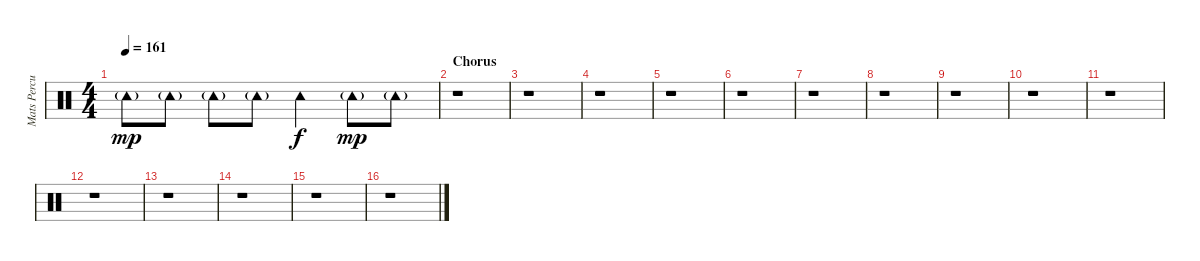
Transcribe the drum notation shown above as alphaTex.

\track ("Mats Percussion" "Mats Percu") {instrument percussion}
\staff {score}
\articulation defaults
\ts (4 4)
\tempo 161
\clef neutral
\ks c "Tambourine (hit)"{g}.8{dy mp} "Tambourine (hit)"{g}.8 "Tambourine (hit)"{g}.8 "Tambourine (hit)"{g}.8 "Tambourine (hit)".4{dy f} "Tambourine (hit)"{g}.8{dy mp} "Tambourine (hit)"{g}.8
|
\section ("" "Chorus")
r.1 |
r.1 |
r.1 |
r.1 |
r.1 |
r.1 |
r.1 |
r.1 |
r.1 |
r.1 |
r.1 |
r.1 |
r.1 |
r.1 |
r.1
